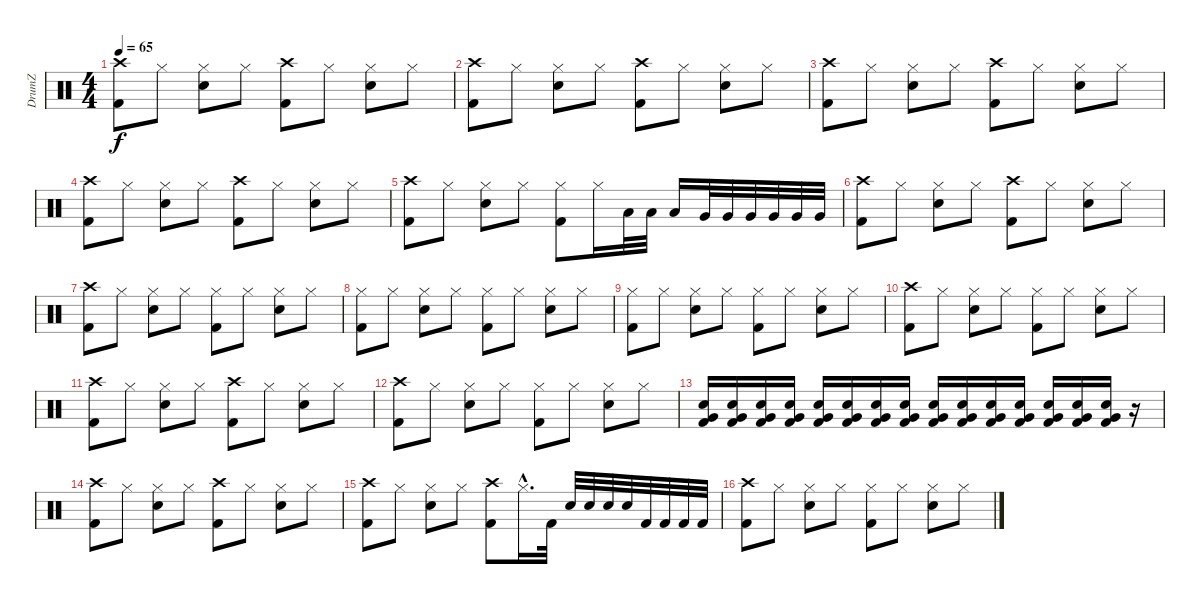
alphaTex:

\track ("DrumZ" "DrumZ") {instrument percussion}
\staff {score}
\articulation defaults
\ts (4 4)
\tempo 65
\clef neutral
\ks c
("Crash high (hit)" "Kick (hit) 2").8{dy f} "Hi-Hat (closed)".8 ("Hi-Hat (closed)" "Electric Snare (hit)").8 "Hi-Hat (closed)".8 ("Crash high (hit)" "Kick (hit) 2").8 "Hi-Hat (closed)".8 ("Hi-Hat (closed)" "Electric Snare (hit)").8 "Hi-Hat (closed)".8 |
("Crash high (hit)" "Kick (hit) 2").8 "Hi-Hat (closed)".8 ("Hi-Hat (closed)" "Electric Snare (hit)").8 "Hi-Hat (closed)".8 ("Crash high (hit)" "Kick (hit) 2").8 "Hi-Hat (closed)".8 ("Hi-Hat (closed)" "Electric Snare (hit)").8 "Hi-Hat (closed)".8 |
("Crash high (hit)" "Kick (hit) 2").8 "Hi-Hat (closed)".8 ("Hi-Hat (closed)" "Electric Snare (hit)").8 "Hi-Hat (closed)".8 ("Crash high (hit)" "Kick (hit) 2").8 "Hi-Hat (closed)".8 ("Hi-Hat (closed)" "Electric Snare (hit)").8 "Hi-Hat (closed)".8 |
("Crash high (hit)" "Kick (hit) 2").8 "Hi-Hat (closed)".8 ("Hi-Hat (closed)" "Electric Snare (hit)").8 "Hi-Hat (closed)".8 ("Crash high (hit)" "Kick (hit) 2").8 "Hi-Hat (closed)".8 ("Hi-Hat (closed)" "Electric Snare (hit)").8 "Hi-Hat (closed)".8 |
("Crash high (hit)" "Kick (hit) 2").8 "Hi-Hat (closed)".8 ("Hi-Hat (closed)" "Electric Snare (hit)").8 "Hi-Hat (closed)".8 ("Hi-Hat (closed)" "Kick (hit) 2").8 "Hi-Hat (closed)".16 "Low Tom (hit)".32 "Low Tom (hit)".32 "Low Tom (hit)".16 "Very Low Tom (hit)".32 "Very Low Tom (hit)".32 "Very Low Tom (hit)".32 "Very Low Tom (hit)".32 "Very Low Tom (hit)".32 "Very Low Tom (hit)".32 |
("Crash high (hit)" "Kick (hit) 2").8 "Hi-Hat (closed)".8 ("Hi-Hat (closed)" "Electric Snare (hit)").8 "Hi-Hat (closed)".8 ("Crash high (hit)" "Kick (hit) 2").8 "Hi-Hat (closed)".8 ("Hi-Hat (closed)" "Electric Snare (hit)").8 "Hi-Hat (closed)".8 |
("Crash high (hit)" "Kick (hit) 2").8 "Hi-Hat (closed)".8 ("Hi-Hat (closed)" "Electric Snare (hit)").8 "Hi-Hat (closed)".8 ("Hi-Hat (closed)" "Kick (hit) 2").8 "Hi-Hat (closed)".8 ("Hi-Hat (closed)" "Electric Snare (hit)").8 "Hi-Hat (closed)".8 |
("Hi-Hat (closed)" "Kick (hit) 2").8 "Hi-Hat (closed)".8 ("Hi-Hat (closed)" "Electric Snare (hit)").8 "Hi-Hat (closed)".8 ("Hi-Hat (closed)" "Kick (hit) 2").8 "Hi-Hat (closed)".8 ("Hi-Hat (closed)" "Electric Snare (hit)").8 "Hi-Hat (closed)".8 |
("Hi-Hat (closed)" "Kick (hit) 2").8 "Hi-Hat (closed)".8 ("Hi-Hat (closed)" "Electric Snare (hit)").8 "Hi-Hat (closed)".8 ("Hi-Hat (closed)" "Kick (hit) 2").8 "Hi-Hat (closed)".8 ("Hi-Hat (closed)" "Electric Snare (hit)").8 "Hi-Hat (closed)".8 |
("Crash high (hit)" "Kick (hit) 2").8 "Hi-Hat (closed)".8 ("Hi-Hat (closed)" "Electric Snare (hit)").8 "Hi-Hat (closed)".8 ("Hi-Hat (closed)" "Kick (hit) 2").8 "Hi-Hat (closed)".8 ("Hi-Hat (closed)" "Electric Snare (hit)").8 "Hi-Hat (closed)".8 |
("Crash high (hit)" "Kick (hit) 2").8 "Hi-Hat (closed)".8 ("Hi-Hat (closed)" "Electric Snare (hit)").8 "Hi-Hat (closed)".8 ("Crash high (hit)" "Kick (hit) 2").8 "Hi-Hat (closed)".8 ("Hi-Hat (closed)" "Electric Snare (hit)").8 "Hi-Hat (closed)".8 |
("Crash high (hit)" "Kick (hit) 2").8 "Hi-Hat (closed)".8 ("Hi-Hat (closed)" "Electric Snare (hit)").8 "Hi-Hat (closed)".8 ("Hi-Hat (closed)" "Kick (hit) 2").8 "Hi-Hat (closed)".8 ("Hi-Hat (closed)" "Electric Snare (hit)").8 "Hi-Hat (closed)".8 |
("Electric Snare (hit)" "Very Low Tom (hit)" "Kick (hit) 2").16{volume 7} ("Electric Snare (hit)" "Very Low Tom (hit)" "Kick (hit) 2").16 ("Electric Snare (hit)" "Very Low Tom (hit)" "Kick (hit) 2").16 ("Electric Snare (hit)" "Very Low Tom (hit)" "Kick (hit) 2").16 ("Electric Snare (hit)" "Very Low Tom (hit)" "Kick (hit) 2").16{volume 10} ("Electric Snare (hit)" "Very Low Tom (hit)" "Kick (hit) 2").16 ("Electric Snare (hit)" "Very Low Tom (hit)" "Kick (hit) 2").16 ("Electric Snare (hit)" "Very Low Tom (hit)" "Kick (hit) 2").16 ("Electric Snare (hit)" "Very Low Tom (hit)" "Kick (hit) 2").16{volume 12} ("Electric Snare (hit)" "Very Low Tom (hit)" "Kick (hit) 2").16 ("Electric Snare (hit)" "Very Low Tom (hit)" "Kick (hit) 2").16 ("Electric Snare (hit)" "Very Low Tom (hit)" "Kick (hit) 2").16 ("Electric Snare (hit)" "Very Low Tom (hit)" "Kick (hit) 2").16{volume 14} ("Electric Snare (hit)" "Very Low Tom (hit)" "Kick (hit) 2").16 ("Electric Snare (hit)" "Very Low Tom (hit)" "Kick (hit) 2").16 r.16 |
("Crash high (hit)" "Kick (hit) 2").8 "Hi-Hat (closed)".8 ("Hi-Hat (closed)" "Electric Snare (hit)").8 "Hi-Hat (closed)".8 ("Crash high (hit)" "Kick (hit) 2").8 "Hi-Hat (closed)".8 ("Hi-Hat (closed)" "Electric Snare (hit)").8 "Hi-Hat (closed)".8 |
("Crash high (hit)" "Kick (hit) 2").8 "Hi-Hat (closed)".8 ("Hi-Hat (closed)" "Electric Snare (hit)").8 "Hi-Hat (closed)".8 ("Crash high (hit)" "Kick (hit) 2").8 "Hi-Hat (closed)"{hac}.16{d} "Kick (hit) 2".32 "Electric Snare (hit)".32 "Electric Snare (hit)".32 "Electric Snare (hit)".32 "Electric Snare (hit)".32 "Kick (hit) 2".32 "Kick (hit) 2".32 "Kick (hit) 2".32 "Kick (hit) 2".32 |
("Crash high (hit)" "Kick (hit) 2").8 "Hi-Hat (closed)".8 ("Hi-Hat (closed)" "Electric Snare (hit)").8 "Hi-Hat (closed)".8 ("Hi-Hat (closed)" "Kick (hit) 2").8 "Hi-Hat (closed)".8 ("Hi-Hat (closed)" "Electric Snare (hit)").8 "Hi-Hat (closed)".8
